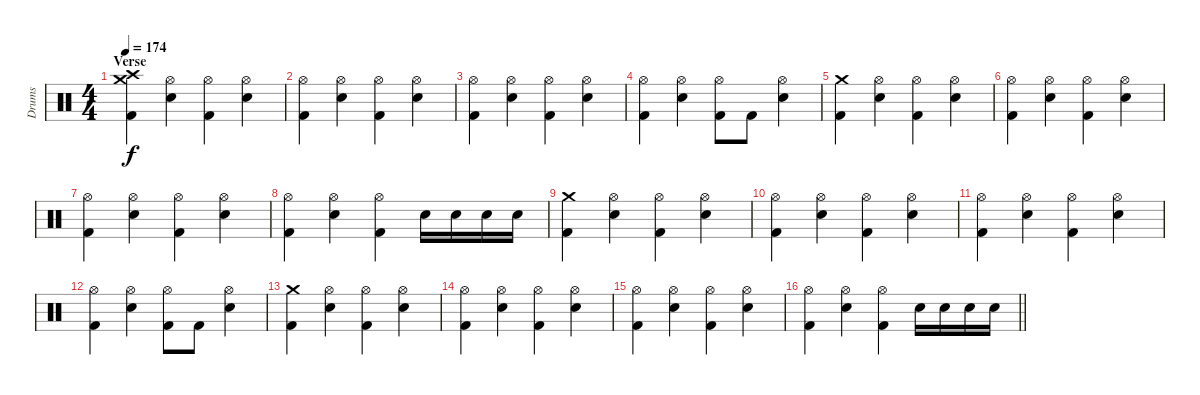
\track ("Drums" "Drums") {instrument percussion}
\staff {score}
\articulation defaults
\ts (4 4)
\section ("" "Verse")
\tempo 174
\clef neutral
\ks c
("Crash medium (hit)" "Crash high (hit)" "Kick (hit) 2").4{dy f} ("Hi-Hat (open)" "Electric Snare (hit)").4 ("Hi-Hat (open)" "Kick (hit) 2").4 ("Hi-Hat (open)" "Electric Snare (hit)").4 |
("Hi-Hat (open)" "Kick (hit) 2").4 ("Hi-Hat (open)" "Electric Snare (hit)").4 ("Hi-Hat (open)" "Kick (hit) 2").4 ("Hi-Hat (open)" "Electric Snare (hit)").4 |
("Hi-Hat (open)" "Kick (hit) 2").4 ("Hi-Hat (open)" "Electric Snare (hit)").4 ("Hi-Hat (open)" "Kick (hit) 2").4 ("Hi-Hat (open)" "Electric Snare (hit)").4 |
("Hi-Hat (open)" "Kick (hit) 2").4 ("Hi-Hat (open)" "Electric Snare (hit)").4 ("Hi-Hat (open)" "Kick (hit) 2").8 "Kick (hit) 2".8 ("Hi-Hat (open)" "Electric Snare (hit)").4 |
("Crash medium (hit)" "Kick (hit) 2").4 ("Hi-Hat (open)" "Electric Snare (hit)").4 ("Hi-Hat (open)" "Kick (hit) 2").4 ("Hi-Hat (open)" "Electric Snare (hit)").4 |
("Hi-Hat (open)" "Kick (hit) 2").4 ("Hi-Hat (open)" "Electric Snare (hit)").4 ("Hi-Hat (open)" "Kick (hit) 2").4 ("Hi-Hat (open)" "Electric Snare (hit)").4 |
("Hi-Hat (open)" "Kick (hit) 2").4 ("Hi-Hat (open)" "Electric Snare (hit)").4 ("Hi-Hat (open)" "Kick (hit) 2").4 ("Hi-Hat (open)" "Electric Snare (hit)").4 |
("Hi-Hat (open)" "Kick (hit) 2").4 ("Hi-Hat (open)" "Electric Snare (hit)").4 ("Hi-Hat (open)" "Kick (hit) 2").4 "Electric Snare (hit)".16 "Electric Snare (hit)".16 "Electric Snare (hit)".16 "Electric Snare (hit)".16 |
("Crash medium (hit)" "Kick (hit) 2").4 ("Hi-Hat (open)" "Electric Snare (hit)").4 ("Hi-Hat (open)" "Kick (hit) 2").4 ("Hi-Hat (open)" "Electric Snare (hit)").4 |
("Hi-Hat (open)" "Kick (hit) 2").4 ("Hi-Hat (open)" "Electric Snare (hit)").4 ("Hi-Hat (open)" "Kick (hit) 2").4 ("Hi-Hat (open)" "Electric Snare (hit)").4 |
("Hi-Hat (open)" "Kick (hit) 2").4 ("Hi-Hat (open)" "Electric Snare (hit)").4 ("Hi-Hat (open)" "Kick (hit) 2").4 ("Hi-Hat (open)" "Electric Snare (hit)").4 |
("Hi-Hat (open)" "Kick (hit) 2").4 ("Hi-Hat (open)" "Electric Snare (hit)").4 ("Hi-Hat (open)" "Kick (hit) 2").8 "Kick (hit) 2".8 ("Hi-Hat (open)" "Electric Snare (hit)").4 |
("Crash medium (hit)" "Kick (hit) 2").4 ("Hi-Hat (open)" "Electric Snare (hit)").4 ("Hi-Hat (open)" "Kick (hit) 2").4 ("Hi-Hat (open)" "Electric Snare (hit)").4 |
("Hi-Hat (open)" "Kick (hit) 2").4 ("Hi-Hat (open)" "Electric Snare (hit)").4 ("Hi-Hat (open)" "Kick (hit) 2").4 ("Hi-Hat (open)" "Electric Snare (hit)").4 |
("Hi-Hat (open)" "Kick (hit) 2").4 ("Hi-Hat (open)" "Electric Snare (hit)").4 ("Hi-Hat (open)" "Kick (hit) 2").4 ("Hi-Hat (open)" "Electric Snare (hit)").4 |
\barLineRight lightlight
("Hi-Hat (open)" "Kick (hit) 2").4 ("Hi-Hat (open)" "Electric Snare (hit)").4 ("Hi-Hat (open)" "Kick (hit) 2").4 "Electric Snare (hit)".16 "Electric Snare (hit)".16 "Electric Snare (hit)".16 "Electric Snare (hit)".16
